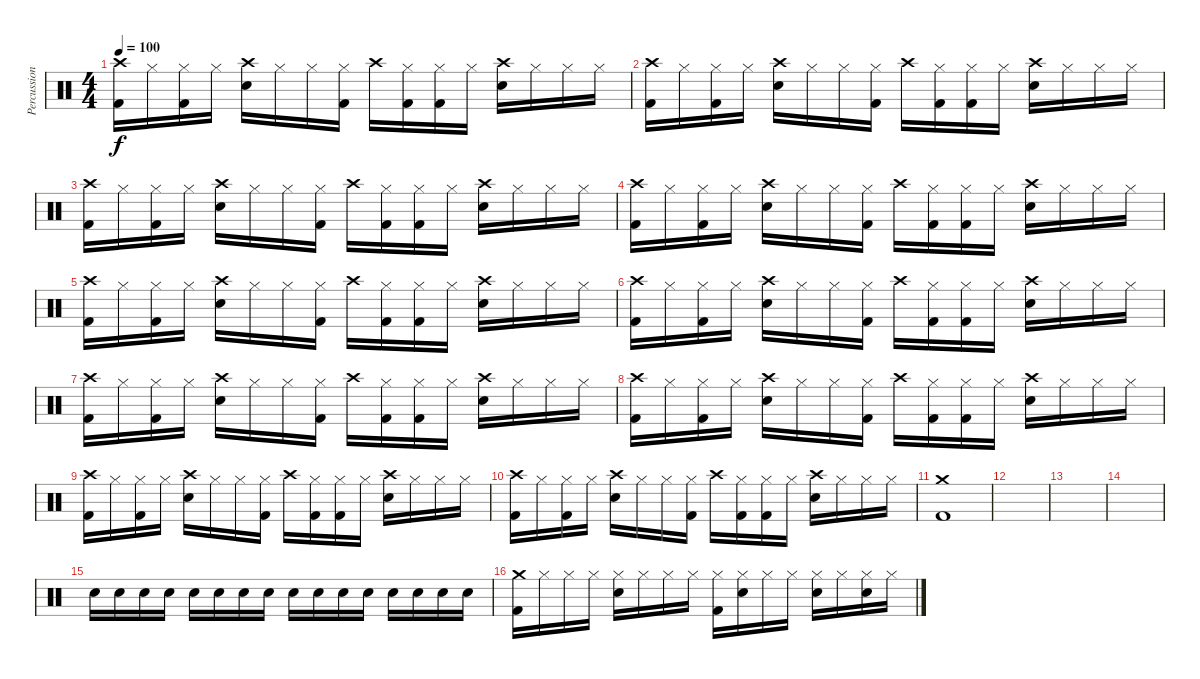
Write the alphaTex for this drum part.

\track ("Percussion" "Percussion") {instrument percussion}
\staff {score}
\articulation defaults
\ts (4 4)
\tempo 100
\clef neutral
\ks c
("Crash high (hit)" "Kick (hit) 2").16{dy f} "Hi-Hat (closed)".16 ("Hi-Hat (closed)" "Kick (hit) 2").16 "Hi-Hat (closed)".16 ("Crash high (hit)" "Snare (hit) 2").16 "Hi-Hat (closed)".16 "Hi-Hat (closed)".16 ("Hi-Hat (closed)" "Kick (hit) 2").16 "Crash high (hit)".16 ("Hi-Hat (closed)" "Kick (hit) 2").16 ("Hi-Hat (closed)" "Kick (hit) 2").16 "Hi-Hat (closed)".16 ("Crash high (hit)" "Snare (hit) 2").16 "Hi-Hat (closed)".16 "Hi-Hat (closed)".16 "Hi-Hat (closed)".16 |
("Crash high (hit)" "Kick (hit) 2").16 "Hi-Hat (closed)".16 ("Hi-Hat (closed)" "Kick (hit) 2").16 "Hi-Hat (closed)".16 ("Crash high (hit)" "Snare (hit) 2").16 "Hi-Hat (closed)".16 "Hi-Hat (closed)".16 ("Hi-Hat (closed)" "Kick (hit) 2").16 "Crash high (hit)".16 ("Hi-Hat (closed)" "Kick (hit) 2").16 ("Hi-Hat (closed)" "Kick (hit) 2").16 "Hi-Hat (closed)".16 ("Crash high (hit)" "Snare (hit) 2").16 "Hi-Hat (closed)".16 "Hi-Hat (closed)".16 "Hi-Hat (closed)".16 |
("Crash high (hit)" "Kick (hit) 2").16 "Hi-Hat (closed)".16 ("Hi-Hat (closed)" "Kick (hit) 2").16 "Hi-Hat (closed)".16 ("Crash high (hit)" "Snare (hit) 2").16 "Hi-Hat (closed)".16 "Hi-Hat (closed)".16 ("Hi-Hat (closed)" "Kick (hit) 2").16 "Crash high (hit)".16 ("Hi-Hat (closed)" "Kick (hit) 2").16 ("Hi-Hat (closed)" "Kick (hit) 2").16 "Hi-Hat (closed)".16 ("Crash high (hit)" "Snare (hit) 2").16 "Hi-Hat (closed)".16 "Hi-Hat (closed)".16 "Hi-Hat (closed)".16 |
("Crash high (hit)" "Kick (hit) 2").16 "Hi-Hat (closed)".16 ("Hi-Hat (closed)" "Kick (hit) 2").16 "Hi-Hat (closed)".16 ("Crash high (hit)" "Snare (hit) 2").16 "Hi-Hat (closed)".16 "Hi-Hat (closed)".16 ("Hi-Hat (closed)" "Kick (hit) 2").16 "Crash high (hit)".16 ("Hi-Hat (closed)" "Kick (hit) 2").16 ("Hi-Hat (closed)" "Kick (hit) 2").16 "Hi-Hat (closed)".16 ("Crash high (hit)" "Snare (hit) 2").16 "Hi-Hat (closed)".16 "Hi-Hat (closed)".16 "Hi-Hat (closed)".16 |
("Crash high (hit)" "Kick (hit) 2").16 "Hi-Hat (closed)".16 ("Hi-Hat (closed)" "Kick (hit) 2").16 "Hi-Hat (closed)".16 ("Crash high (hit)" "Snare (hit) 2").16 "Hi-Hat (closed)".16 "Hi-Hat (closed)".16 ("Hi-Hat (closed)" "Kick (hit) 2").16 "Crash high (hit)".16 ("Hi-Hat (closed)" "Kick (hit) 2").16 ("Hi-Hat (closed)" "Kick (hit) 2").16 "Hi-Hat (closed)".16 ("Crash high (hit)" "Snare (hit) 2").16 "Hi-Hat (closed)".16 "Hi-Hat (closed)".16 "Hi-Hat (closed)".16 |
("Crash high (hit)" "Kick (hit) 2").16 "Hi-Hat (closed)".16 ("Hi-Hat (closed)" "Kick (hit) 2").16 "Hi-Hat (closed)".16 ("Crash high (hit)" "Snare (hit) 2").16 "Hi-Hat (closed)".16 "Hi-Hat (closed)".16 ("Hi-Hat (closed)" "Kick (hit) 2").16 "Crash high (hit)".16 ("Hi-Hat (closed)" "Kick (hit) 2").16 ("Hi-Hat (closed)" "Kick (hit) 2").16 "Hi-Hat (closed)".16 ("Crash high (hit)" "Snare (hit) 2").16 "Hi-Hat (closed)".16 "Hi-Hat (closed)".16 "Hi-Hat (closed)".16 |
("Crash high (hit)" "Kick (hit) 2").16 "Hi-Hat (closed)".16 ("Hi-Hat (closed)" "Kick (hit) 2").16 "Hi-Hat (closed)".16 ("Crash high (hit)" "Snare (hit) 2").16 "Hi-Hat (closed)".16 "Hi-Hat (closed)".16 ("Hi-Hat (closed)" "Kick (hit) 2").16 "Crash high (hit)".16 ("Hi-Hat (closed)" "Kick (hit) 2").16 ("Hi-Hat (closed)" "Kick (hit) 2").16 "Hi-Hat (closed)".16 ("Crash high (hit)" "Snare (hit) 2").16 "Hi-Hat (closed)".16 "Hi-Hat (closed)".16 "Hi-Hat (closed)".16 |
("Crash high (hit)" "Kick (hit) 2").16 "Hi-Hat (closed)".16 ("Hi-Hat (closed)" "Kick (hit) 2").16 "Hi-Hat (closed)".16 ("Crash high (hit)" "Snare (hit) 2").16 "Hi-Hat (closed)".16 "Hi-Hat (closed)".16 ("Hi-Hat (closed)" "Kick (hit) 2").16 "Crash high (hit)".16 ("Hi-Hat (closed)" "Kick (hit) 2").16 ("Hi-Hat (closed)" "Kick (hit) 2").16 "Hi-Hat (closed)".16 ("Crash high (hit)" "Snare (hit) 2").16 "Hi-Hat (closed)".16 "Hi-Hat (closed)".16 "Hi-Hat (closed)".16 |
("Crash high (hit)" "Kick (hit) 2").16 "Hi-Hat (closed)".16 ("Hi-Hat (closed)" "Kick (hit) 2").16 "Hi-Hat (closed)".16 ("Crash high (hit)" "Snare (hit) 2").16 "Hi-Hat (closed)".16 "Hi-Hat (closed)".16 ("Hi-Hat (closed)" "Kick (hit) 2").16 "Crash high (hit)".16 ("Hi-Hat (closed)" "Kick (hit) 2").16 ("Hi-Hat (closed)" "Kick (hit) 2").16 "Hi-Hat (closed)".16 ("Crash high (hit)" "Snare (hit) 2").16 "Hi-Hat (closed)".16 "Hi-Hat (closed)".16 "Hi-Hat (closed)".16 |
("Crash high (hit)" "Kick (hit) 2").16 "Hi-Hat (closed)".16 ("Hi-Hat (closed)" "Kick (hit) 2").16 "Hi-Hat (closed)".16 ("Crash high (hit)" "Snare (hit) 2").16 "Hi-Hat (closed)".16 "Hi-Hat (closed)".16 ("Hi-Hat (closed)" "Kick (hit) 2").16 "Crash high (hit)".16 ("Hi-Hat (closed)" "Kick (hit) 2").16 ("Hi-Hat (closed)" "Kick (hit) 2").16 "Hi-Hat (closed)".16 ("Crash high (hit)" "Snare (hit) 2").16 "Hi-Hat (closed)".16 "Hi-Hat (closed)".16 "Hi-Hat (closed)".16 |
("Crash medium (hit)" "Kick (hit) 2").1 |
|
|
|
"Snare (hit) 2".16{volume 13} "Snare (hit) 2".16 "Snare (hit) 2".16 "Snare (hit) 2".16 "Snare (hit) 2".16 "Snare (hit) 2".16 "Snare (hit) 2".16 "Snare (hit) 2".16 "Snare (hit) 2".16 "Snare (hit) 2".16 "Snare (hit) 2".16 "Snare (hit) 2".16 "Snare (hit) 2".16 "Snare (hit) 2".16 "Snare (hit) 2".16 "Snare (hit) 2".16 |
("Crash medium (hit)" "Kick (hit) 2").16 "Hi-Hat (closed)".16 "Hi-Hat (closed)".16 "Hi-Hat (closed)".16 ("Hi-Hat (closed)" "Snare (hit) 2").16 "Hi-Hat (closed)".16 "Hi-Hat (closed)".16 "Hi-Hat (closed)".16 ("Hi-Hat (closed)" "Kick (hit) 2").16 ("Hi-Hat (closed)" "Snare (hit) 2").16 "Hi-Hat (closed)".16 "Hi-Hat (closed)".16 ("Hi-Hat (closed)" "Snare (hit) 2").16 "Hi-Hat (closed)".16 ("Hi-Hat (closed)" "Snare (hit) 2").16 "Hi-Hat (closed)".16
